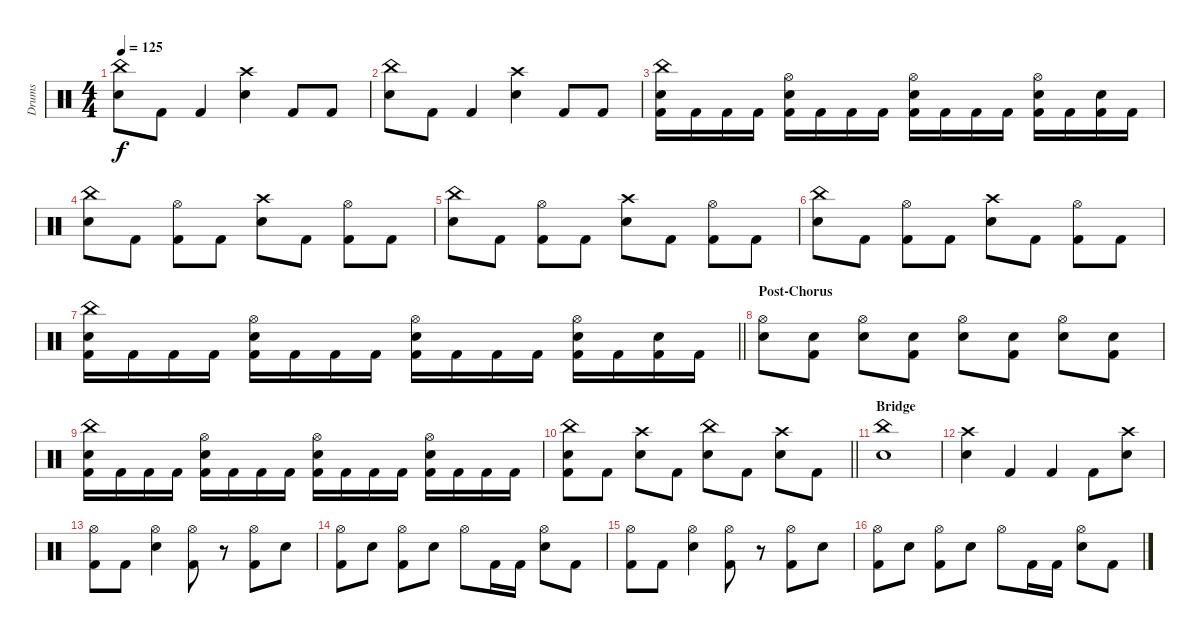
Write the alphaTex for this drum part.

\track ("Drums" "Drums") {instrument percussion}
\staff {score}
\articulation defaults
\ts (4 4)
\tempo 125
\clef neutral
\ks c
("China (hit)" "Electric Snare (hit)").8{dy f} "Kick (hit) 2".8 "Kick (hit) 2".4 ("Crash high (hit)" "Electric Snare (hit)").4 "Kick (hit) 2".8 "Kick (hit) 2".8 |
("China (hit)" "Electric Snare (hit)").8 "Kick (hit) 2".8 "Kick (hit) 2".4 ("Crash high (hit)" "Electric Snare (hit)").4 "Kick (hit) 2".8 "Kick (hit) 2".8 |
("China (hit)" "Kick (hit) 2" "Electric Snare (hit)").16 "Kick (hit) 2".16 "Kick (hit) 2".16 "Kick (hit) 2".16 ("Hi-Hat (open)" "Kick (hit) 2" "Electric Snare (hit)").16 "Kick (hit) 2".16 "Kick (hit) 2".16 "Kick (hit) 2".16 ("Hi-Hat (open)" "Kick (hit) 2" "Electric Snare (hit)").16 "Kick (hit) 2".16 "Kick (hit) 2".16 "Kick (hit) 2".16 ("Hi-Hat (open)" "Kick (hit) 2" "Electric Snare (hit)").16 "Kick (hit) 2".16 ("Kick (hit) 2" "Electric Snare (hit)").16 "Kick (hit) 2".16 |
("China (hit)" "Electric Snare (hit)").8 "Kick (hit) 2".8 ("Hi-Hat (open)" "Kick (hit) 2").8 "Kick (hit) 2".8 ("Crash high (hit)" "Electric Snare (hit)").8 "Kick (hit) 2".8 ("Hi-Hat (open)" "Kick (hit) 2").8 "Kick (hit) 2".8 |
("China (hit)" "Electric Snare (hit)").8 "Kick (hit) 2".8 ("Hi-Hat (open)" "Kick (hit) 2").8 "Kick (hit) 2".8 ("Crash high (hit)" "Electric Snare (hit)").8 "Kick (hit) 2".8 ("Hi-Hat (open)" "Kick (hit) 2").8 "Kick (hit) 2".8 |
("China (hit)" "Electric Snare (hit)").8 "Kick (hit) 2".8 ("Hi-Hat (open)" "Kick (hit) 2").8 "Kick (hit) 2".8 ("Crash high (hit)" "Electric Snare (hit)").8 "Kick (hit) 2".8 ("Hi-Hat (open)" "Kick (hit) 2").8 "Kick (hit) 2".8 |
\barLineRight lightlight
("China (hit)" "Kick (hit) 2" "Electric Snare (hit)").16 "Kick (hit) 2".16 "Kick (hit) 2".16 "Kick (hit) 2".16 ("Hi-Hat (open)" "Kick (hit) 2" "Electric Snare (hit)").16 "Kick (hit) 2".16 "Kick (hit) 2".16 "Kick (hit) 2".16 ("Hi-Hat (open)" "Kick (hit) 2" "Electric Snare (hit)").16 "Kick (hit) 2".16 "Kick (hit) 2".16 "Kick (hit) 2".16 ("Hi-Hat (open)" "Kick (hit) 2" "Electric Snare (hit)").16 "Kick (hit) 2".16 ("Kick (hit) 2" "Electric Snare (hit)").16 "Kick (hit) 2".16 |
\section ("" "Post-Chorus")
("Hi-Hat (open)" "Electric Snare (hit)").8 ("Kick (hit) 2" "Electric Snare (hit)").8 ("Hi-Hat (open)" "Electric Snare (hit)").8 ("Kick (hit) 2" "Electric Snare (hit)").8 ("Hi-Hat (open)" "Electric Snare (hit)").8 ("Kick (hit) 2" "Electric Snare (hit)").8 ("Hi-Hat (open)" "Electric Snare (hit)").8 ("Kick (hit) 2" "Electric Snare (hit)").8 |
("China (hit)" "Kick (hit) 2" "Electric Snare (hit)").16 "Kick (hit) 2".16 "Kick (hit) 2".16 "Kick (hit) 2".16 ("Hi-Hat (open)" "Kick (hit) 2" "Electric Snare (hit)").16 "Kick (hit) 2".16 "Kick (hit) 2".16 "Kick (hit) 2".16 ("Hi-Hat (open)" "Kick (hit) 2" "Electric Snare (hit)").16 "Kick (hit) 2".16 "Kick (hit) 2".16 "Kick (hit) 2".16 ("Hi-Hat (open)" "Kick (hit) 2" "Electric Snare (hit)").16 "Kick (hit) 2".16 "Kick (hit) 2".16 "Kick (hit) 2".16 |
\barLineRight lightlight
("China (hit)" "Kick (hit) 2" "Electric Snare (hit)").8 "Kick (hit) 2".8 ("Crash high (hit)" "Electric Snare (hit)").8 "Kick (hit) 2".8 ("China (hit)" "Electric Snare (hit)").8 "Kick (hit) 2".8 ("Crash high (hit)" "Electric Snare (hit)").8 "Kick (hit) 2".8 |
\section ("" "Bridge")
("China (hit)" "Electric Snare (hit)").1 |
("Crash high (hit)" "Electric Snare (hit)").4 "Kick (hit) 2".4 "Kick (hit) 2".4 "Kick (hit) 2".8 ("Crash high (hit)" "Electric Snare (hit)").8 |
("Hi-Hat (open)" "Kick (hit) 2").8 "Kick (hit) 2".8 ("Hi-Hat (open)" "Electric Snare (hit)").4 ("Hi-Hat (open)" "Kick (hit) 2").8 r.8 ("Hi-Hat (open)" "Kick (hit) 2").8 "Electric Snare (hit)".8 |
("Hi-Hat (open)" "Kick (hit) 2").8 "Electric Snare (hit)".8 ("Hi-Hat (open)" "Kick (hit) 2").8 "Electric Snare (hit)".8 "Hi-Hat (open)".8 "Kick (hit) 2".16 "Kick (hit) 2".16 ("Hi-Hat (open)" "Electric Snare (hit)").8 "Kick (hit) 2".8 |
("Hi-Hat (open)" "Kick (hit) 2").8 "Kick (hit) 2".8 ("Hi-Hat (open)" "Electric Snare (hit)").4 ("Hi-Hat (open)" "Kick (hit) 2").8 r.8 ("Hi-Hat (open)" "Kick (hit) 2").8 "Electric Snare (hit)".8 |
("Hi-Hat (open)" "Kick (hit) 2").8 "Electric Snare (hit)".8 ("Hi-Hat (open)" "Kick (hit) 2").8 "Electric Snare (hit)".8 "Hi-Hat (open)".8 "Kick (hit) 2".16 "Kick (hit) 2".16 ("Hi-Hat (open)" "Electric Snare (hit)").8 "Kick (hit) 2".8
